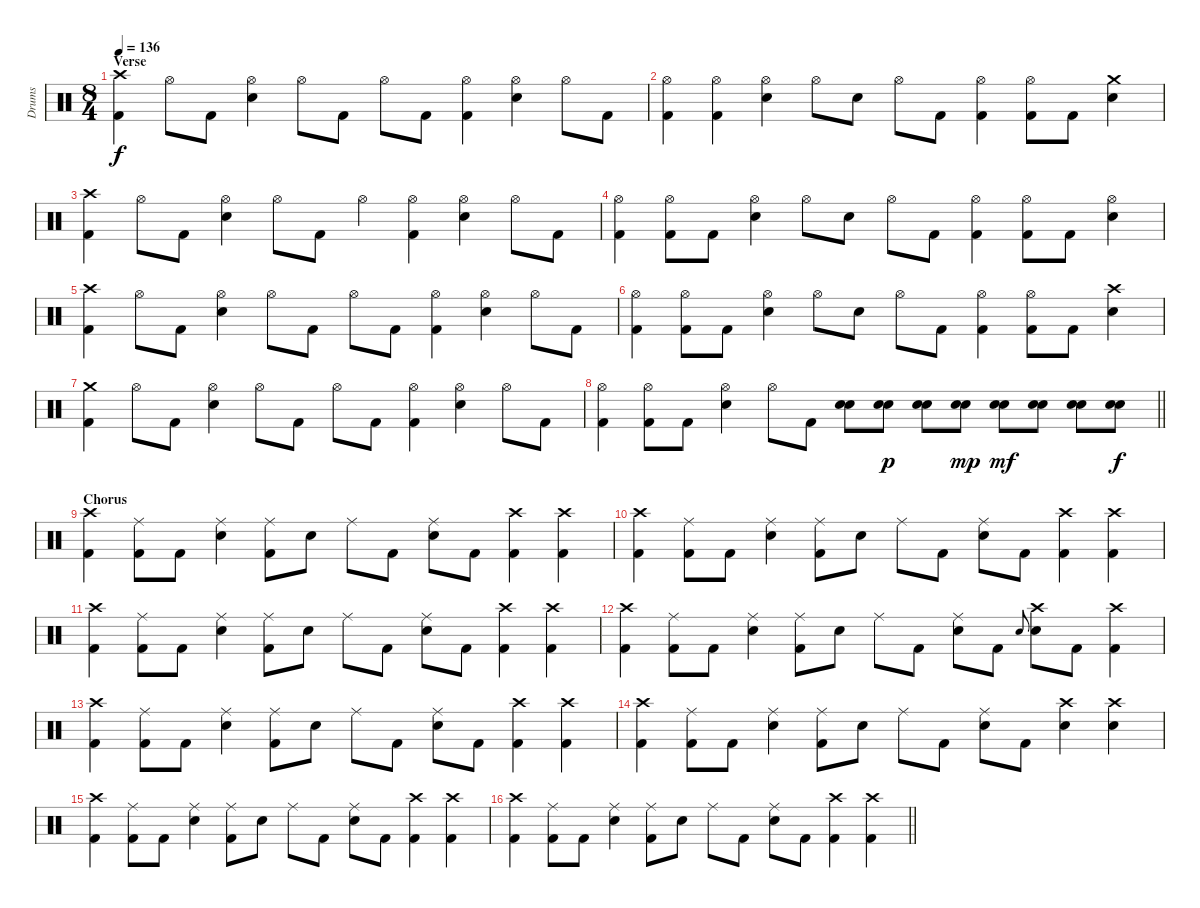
\track ("Drums" "Drums") {instrument percussion}
\staff {score}
\articulation defaults
\ts (8 4)
\section ("" "Verse")
\tempo 136
\clef neutral
\ks c
("Crash high (hit)" "Kick (hit) 2").4{dy f} "Hi-Hat (open)".8 "Kick (hit) 2".8 ("Hi-Hat (open)" "Snare (hit) 2").4 "Hi-Hat (open)".8 "Kick (hit) 2".8 "Hi-Hat (open)".8 "Kick (hit) 2".8 ("Hi-Hat (open)" "Kick (hit) 2").4 ("Hi-Hat (open)" "Snare (hit) 2").4 "Hi-Hat (open)".8 "Kick (hit) 2".8 |
("Hi-Hat (open)" "Kick (hit) 2").4 ("Hi-Hat (open)" "Kick (hit) 2").4 ("Hi-Hat (open)" "Snare (hit) 2").4 "Hi-Hat (open)".8 "Snare (hit) 2".8 "Hi-Hat (open)".8 "Kick (hit) 2".8 ("Hi-Hat (open)" "Kick (hit) 2").4 ("Hi-Hat (open)" "Kick (hit) 2").8 "Kick (hit) 2".8 ("Crash medium (hit)" "Snare (hit) 2").4 |
("Crash high (hit)" "Kick (hit) 2").4 "Hi-Hat (open)".8 "Kick (hit) 2".8 ("Hi-Hat (open)" "Snare (hit) 2").4 "Hi-Hat (open)".8 "Kick (hit) 2".8 "Hi-Hat (open)".4 ("Hi-Hat (open)" "Kick (hit) 2").4 ("Hi-Hat (open)" "Snare (hit) 2").4 "Hi-Hat (open)".8 "Kick (hit) 2".8 |
("Hi-Hat (open)" "Kick (hit) 2").4 ("Hi-Hat (open)" "Kick (hit) 2").8 "Kick (hit) 2".8 ("Hi-Hat (open)" "Snare (hit) 2").4 "Hi-Hat (open)".8 "Snare (hit) 2".8 "Hi-Hat (open)".8 "Kick (hit) 2".8 ("Hi-Hat (open)" "Kick (hit) 2").4 ("Hi-Hat (open)" "Kick (hit) 2").8 "Kick (hit) 2".8 ("Hi-Hat (open)" "Snare (hit) 2").4 |
("Crash high (hit)" "Kick (hit) 2").4 "Hi-Hat (open)".8 "Kick (hit) 2".8 ("Hi-Hat (open)" "Snare (hit) 2").4 "Hi-Hat (open)".8 "Kick (hit) 2".8 "Hi-Hat (open)".8 "Kick (hit) 2".8 ("Hi-Hat (open)" "Kick (hit) 2").4 ("Hi-Hat (open)" "Snare (hit) 2").4 "Hi-Hat (open)".8 "Kick (hit) 2".8 |
("Hi-Hat (open)" "Kick (hit) 2").4 ("Hi-Hat (open)" "Kick (hit) 2").8 "Kick (hit) 2".8 ("Hi-Hat (open)" "Snare (hit) 2").4 "Hi-Hat (open)".8 "Snare (hit) 2".8 "Hi-Hat (open)".8 "Kick (hit) 2".8 ("Hi-Hat (open)" "Kick (hit) 2").4 ("Hi-Hat (open)" "Kick (hit) 2").8 "Kick (hit) 2".8 ("Crash high (hit)" "Snare (hit) 2").4 |
("Crash medium (hit)" "Kick (hit) 2").4 "Hi-Hat (open)".8 "Kick (hit) 2".8 ("Hi-Hat (open)" "Snare (hit) 2").4 "Hi-Hat (open)".8 "Kick (hit) 2".8 "Hi-Hat (open)".8 "Kick (hit) 2".8 ("Hi-Hat (open)" "Kick (hit) 2").4 ("Hi-Hat (open)" "Snare (hit) 2").4 "Hi-Hat (open)".8 "Kick (hit) 2".8 |
\barLineRight lightlight
("Hi-Hat (open)" "Kick (hit) 2").4 ("Hi-Hat (open)" "Kick (hit) 2").8 "Kick (hit) 2".8 ("Hi-Hat (open)" "Snare (hit) 2").4 "Hi-Hat (open)".8 "Kick (hit) 2".8 ("Snare (hit) 2" "Snare (hit) 2").8 ("Snare (hit) 2" "Snare (hit) 2").8{dy p} ("Snare (hit) 2" "Snare (hit) 2").8 ("Snare (hit) 2" "Snare (hit) 2").8{dy mp} ("Snare (hit) 2" "Snare (hit) 2").8{dy mf} ("Snare (hit) 2" "Snare (hit) 2").8 ("Snare (hit) 2" "Snare (hit) 2").8 ("Snare (hit) 2" "Snare (hit) 2").8{dy f} |
\section ("" "Chorus")
("Crash high (hit)" "Kick (hit) 2").4 ("Ride (middle)" "Kick (hit) 2").8 "Kick (hit) 2".8 ("Ride (middle)" "Snare (hit) 2").4 ("Ride (middle)" "Kick (hit) 2").8 "Snare (hit) 2".8 "Ride (middle)".8 "Kick (hit) 2".8 ("Ride (middle)" "Snare (hit) 2").8 "Kick (hit) 2".8 ("Crash high (hit)" "Kick (hit) 2").4 ("Crash high (hit)" "Kick (hit) 2").4 |
("Crash high (hit)" "Kick (hit) 2").4 ("Ride (middle)" "Kick (hit) 2").8 "Kick (hit) 2".8 ("Ride (middle)" "Snare (hit) 2").4 ("Ride (middle)" "Kick (hit) 2").8 "Snare (hit) 2".8 "Ride (middle)".8 "Kick (hit) 2".8 ("Ride (middle)" "Snare (hit) 2").8 "Kick (hit) 2".8 ("Crash high (hit)" "Kick (hit) 2").4 ("Crash high (hit)" "Kick (hit) 2").4 |
("Crash high (hit)" "Kick (hit) 2").4 ("Ride (middle)" "Kick (hit) 2").8 "Kick (hit) 2".8 ("Ride (middle)" "Snare (hit) 2").4 ("Ride (middle)" "Kick (hit) 2").8 "Snare (hit) 2".8 "Ride (middle)".8 "Kick (hit) 2".8 ("Ride (middle)" "Snare (hit) 2").8 "Kick (hit) 2".8 ("Crash high (hit)" "Kick (hit) 2").4 ("Crash high (hit)" "Kick (hit) 2").4 |
("Crash high (hit)" "Kick (hit) 2").4 ("Ride (middle)" "Kick (hit) 2").8 "Kick (hit) 2".8 ("Ride (middle)" "Snare (hit) 2").4 ("Ride (middle)" "Kick (hit) 2").8 "Snare (hit) 2".8 "Ride (middle)".8 "Kick (hit) 2".8 ("Ride (middle)" "Snare (hit) 2").8 "Kick (hit) 2".8 "Snare (hit) 2"{h}.8{gr onbeat} ("Crash high (hit)" "Snare (hit) 2").8 "Kick (hit) 2".8 ("Crash high (hit)" "Kick (hit) 2").4 |
("Crash high (hit)" "Kick (hit) 2").4 ("Ride (middle)" "Kick (hit) 2").8 "Kick (hit) 2".8 ("Ride (middle)" "Snare (hit) 2").4 ("Ride (middle)" "Kick (hit) 2").8 "Snare (hit) 2".8 "Ride (middle)".8 "Kick (hit) 2".8 ("Ride (middle)" "Snare (hit) 2").8 "Kick (hit) 2".8 ("Crash high (hit)" "Kick (hit) 2").4 ("Crash high (hit)" "Kick (hit) 2").4 |
("Crash high (hit)" "Kick (hit) 2").4 ("Ride (middle)" "Kick (hit) 2").8 "Kick (hit) 2".8 ("Ride (middle)" "Snare (hit) 2").4 ("Ride (middle)" "Kick (hit) 2").8 "Snare (hit) 2".8 "Ride (middle)".8 "Kick (hit) 2".8 ("Ride (middle)" "Snare (hit) 2").8 "Kick (hit) 2".8 ("Crash high (hit)" "Snare (hit) 2").4 ("Crash high (hit)" "Snare (hit) 2").4 |
("Crash high (hit)" "Kick (hit) 2").4 ("Ride (middle)" "Kick (hit) 2").8 "Kick (hit) 2".8 ("Ride (middle)" "Snare (hit) 2").4 ("Ride (middle)" "Kick (hit) 2").8 "Snare (hit) 2".8 "Ride (middle)".8 "Kick (hit) 2".8 ("Ride (middle)" "Snare (hit) 2").8 "Kick (hit) 2".8 ("Crash high (hit)" "Kick (hit) 2").4 ("Crash high (hit)" "Kick (hit) 2").4 |
\barLineRight lightlight
("Crash high (hit)" "Kick (hit) 2").4 ("Ride (middle)" "Kick (hit) 2").8 "Kick (hit) 2".8 ("Ride (middle)" "Snare (hit) 2").4 ("Ride (middle)" "Kick (hit) 2").8 "Snare (hit) 2".8 "Ride (middle)".8 "Kick (hit) 2".8 ("Ride (middle)" "Snare (hit) 2").8 "Kick (hit) 2".8 ("Crash high (hit)" "Kick (hit) 2").4 ("Crash high (hit)" "Kick (hit) 2").4
